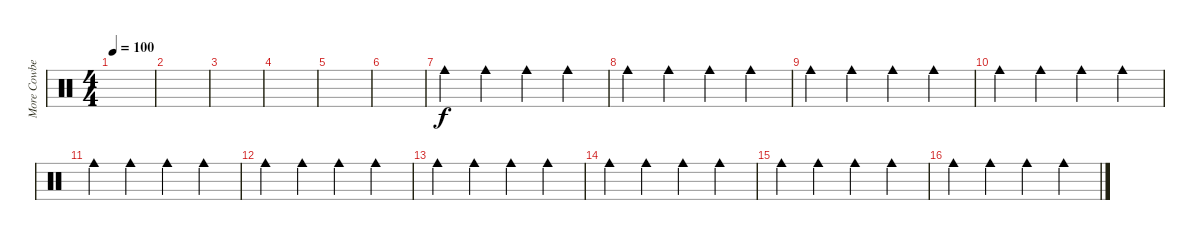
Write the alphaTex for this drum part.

\track ("More Cowbell!!" "More Cowbe") {instrument percussion}
\staff {score}
\articulation defaults
\ts (4 4)
\tempo 100
\clef neutral
\ks c
|
|
|
|
|
|
"Cowbell medium (hit)".4{volume 10} "Cowbell medium (hit)".4 "Cowbell medium (hit)".4 "Cowbell medium (hit)".4 |
"Cowbell medium (hit)".4 "Cowbell medium (hit)".4 "Cowbell medium (hit)".4 "Cowbell medium (hit)".4 |
"Cowbell medium (hit)".4 "Cowbell medium (hit)".4 "Cowbell medium (hit)".4 "Cowbell medium (hit)".4 |
"Cowbell medium (hit)".4 "Cowbell medium (hit)".4 "Cowbell medium (hit)".4 "Cowbell medium (hit)".4 |
"Cowbell medium (hit)".4 "Cowbell medium (hit)".4 "Cowbell medium (hit)".4 "Cowbell medium (hit)".4 |
"Cowbell medium (hit)".4 "Cowbell medium (hit)".4 "Cowbell medium (hit)".4 "Cowbell medium (hit)".4 |
"Cowbell medium (hit)".4 "Cowbell medium (hit)".4 "Cowbell medium (hit)".4 "Cowbell medium (hit)".4 |
"Cowbell medium (hit)".4 "Cowbell medium (hit)".4 "Cowbell medium (hit)".4 "Cowbell medium (hit)".4 |
"Cowbell medium (hit)".4 "Cowbell medium (hit)".4 "Cowbell medium (hit)".4 "Cowbell medium (hit)".4 |
"Cowbell medium (hit)".4 "Cowbell medium (hit)".4 "Cowbell medium (hit)".4 "Cowbell medium (hit)".4
